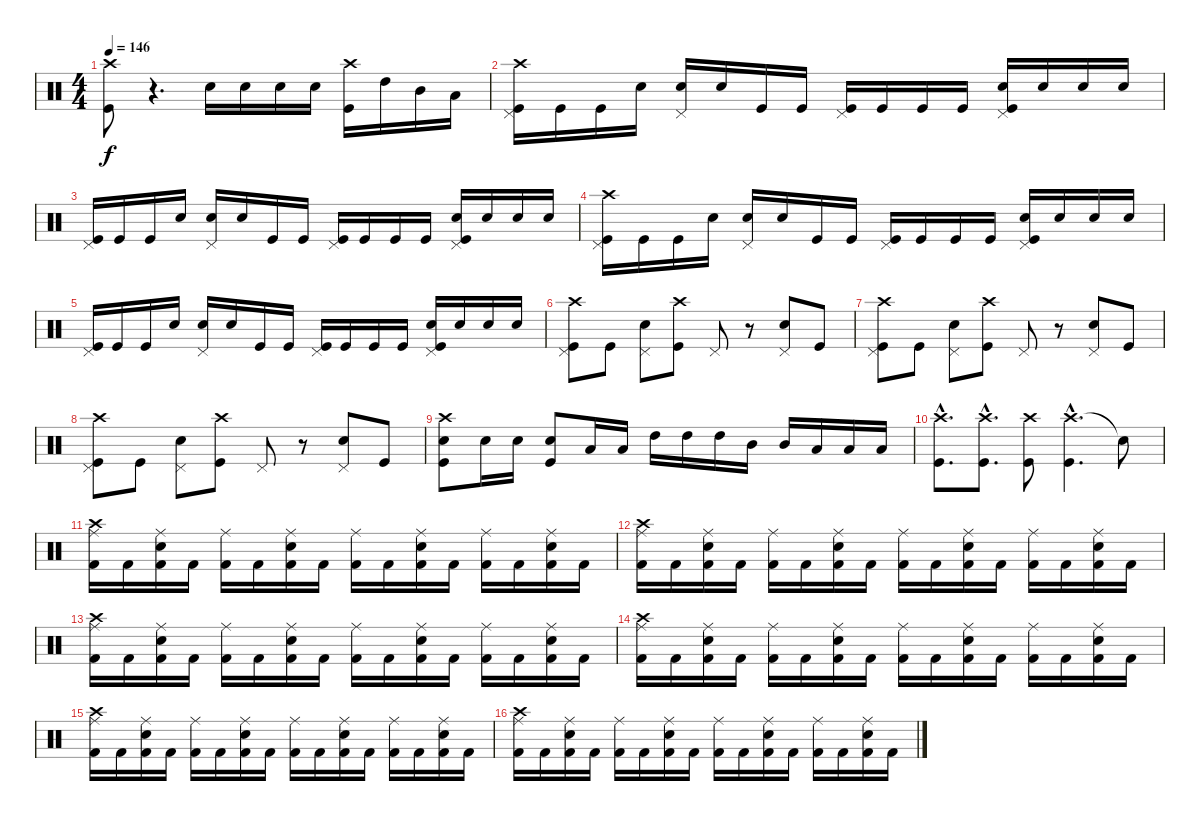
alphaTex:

\track "" {instrument percussion}
\staff {score}
\articulation defaults
\ts (4 4)
\tempo 146
\clef neutral
\ks c
("Crash high (hit)" "Kick (hit)").8{dy f} r.4{d} "Snare (hit) 2".16 "Snare (hit) 2".16 "Snare (hit) 2".16 "Snare (hit) 2".16 ("Crash high (hit)" "Kick (hit)").16 "High Tom (hit)".16 "Mid Tom (hit)".16 "Low Tom (hit)".16 |
("Crash high (hit)" "Pedal Hi-Hat (hit)" "Kick (hit)").16 "Kick (hit)".16 "Kick (hit)".16 "Snare (hit)"{x}.16 ("Snare (hit) 2" "Pedal Hi-Hat (hit)").16 "Snare (hit)"{x}.16 "Kick (hit)".16 "Kick (hit)".16 ("Pedal Hi-Hat (hit)" "Kick (hit)").16 "Kick (hit)".16 "Kick (hit)".16 "Kick (hit)".16 ("Pedal Hi-Hat (hit)" "Snare (hit) 2" "Kick (hit)").16 "Snare (hit)"{x}.16 "Snare (hit)"{x}.16 "Snare (hit)"{x}.16 |
("Pedal Hi-Hat (hit)" "Kick (hit)").16 "Kick (hit)".16 "Kick (hit)".16 "Snare (hit)"{x}.16 ("Snare (hit) 2" "Pedal Hi-Hat (hit)").16 "Snare (hit)"{x}.16 "Kick (hit)".16 "Kick (hit)".16 ("Pedal Hi-Hat (hit)" "Kick (hit)").16 "Kick (hit)".16 "Kick (hit)".16 "Kick (hit)".16 ("Pedal Hi-Hat (hit)" "Snare (hit) 2" "Kick (hit)").16 "Snare (hit)"{x}.16 "Snare (hit)"{x}.16 "Snare (hit)"{x}.16 |
("Crash high (hit)" "Pedal Hi-Hat (hit)" "Kick (hit)").16 "Kick (hit)".16 "Kick (hit)".16 "Snare (hit)"{x}.16 ("Snare (hit) 2" "Pedal Hi-Hat (hit)").16 "Snare (hit)"{x}.16 "Kick (hit)".16 "Kick (hit)".16 ("Pedal Hi-Hat (hit)" "Kick (hit)").16 "Kick (hit)".16 "Kick (hit)".16 "Kick (hit)".16 ("Pedal Hi-Hat (hit)" "Snare (hit) 2" "Kick (hit)").16 "Snare (hit)"{x}.16 "Snare (hit)"{x}.16 "Snare (hit)"{x}.16 |
("Pedal Hi-Hat (hit)" "Kick (hit)").16 "Kick (hit)".16 "Kick (hit)".16 "Snare (hit)"{x}.16 ("Snare (hit) 2" "Pedal Hi-Hat (hit)").16 "Snare (hit)"{x}.16 "Kick (hit)".16 "Kick (hit)".16 ("Pedal Hi-Hat (hit)" "Kick (hit)").16 "Kick (hit)".16 "Kick (hit)".16 "Kick (hit)".16 ("Pedal Hi-Hat (hit)" "Snare (hit) 2" "Kick (hit)").16 "Snare (hit)"{x}.16 "Snare (hit)"{x}.16 "Snare (hit)"{x}.16 |
("Crash high (hit)" "Pedal Hi-Hat (hit)" "Kick (hit)").8 "Kick (hit)".8 ("Pedal Hi-Hat (hit)" "Snare (hit) 2").8 ("Crash high (hit)" "Kick (hit)").8 "Pedal Hi-Hat (hit)".8 r.8 ("Pedal Hi-Hat (hit)" "Snare (hit) 2").8 "Kick (hit)".8 |
("Crash high (hit)" "Pedal Hi-Hat (hit)" "Kick (hit)").8 "Kick (hit)".8 ("Pedal Hi-Hat (hit)" "Snare (hit) 2").8 ("Crash high (hit)" "Kick (hit)").8 "Pedal Hi-Hat (hit)".8 r.8 ("Pedal Hi-Hat (hit)" "Snare (hit) 2").8 "Kick (hit)".8 |
("Crash high (hit)" "Pedal Hi-Hat (hit)" "Kick (hit)").8 "Kick (hit)".8 ("Pedal Hi-Hat (hit)" "Snare (hit) 2").8 ("Crash high (hit)" "Kick (hit)").8 "Pedal Hi-Hat (hit)".8 r.8 ("Pedal Hi-Hat (hit)" "Snare (hit) 2").8 "Kick (hit)".8 |
("Crash high (hit)" "Kick (hit)" "Snare (hit) 2").8 "Snare (hit) 2".16 "Snare (hit) 2".16 ("Snare (hit) 2" "Kick (hit)").8 "Low Tom (hit)".16 "Low Tom (hit)".16 "High Tom (hit)".16 "High Tom (hit)".16 "High Tom (hit)".16 "Mid Tom (hit)".16 "Mid Tom (hit)".16 "Low Tom (hit)".16 "Low Tom (hit)".16 "Low Tom (hit)".16 |
("Crash high (hit)"{hac} "Kick (hit)"{hac}).8{d} ("Crash high (hit)"{hac} "Kick (hit)"{hac}).8{d} ("Crash high (hit)" "Kick (hit)").8 ("Crash high (hit)"{hac} "Kick (hit)"{hac}).4{d} "Snare (hit)"{t}.8 |
("Crash high (hit)" "Ride (middle)" "Kick (hit) 2").16 "Kick (hit) 2".16 ("Electric Snare (hit)" "Ride (middle)" "Kick (hit) 2").16 "Kick (hit) 2".16 ("Ride (middle)" "Kick (hit) 2").16 "Kick (hit) 2".16 ("Electric Snare (hit)" "Ride (middle)" "Kick (hit) 2").16 "Kick (hit) 2".16 ("Ride (middle)" "Kick (hit) 2").16 "Kick (hit) 2".16 ("Electric Snare (hit)" "Ride (middle)" "Kick (hit) 2").16 "Kick (hit) 2".16 ("Ride (middle)" "Kick (hit) 2").16 "Kick (hit) 2".16 ("Electric Snare (hit)" "Ride (middle)" "Kick (hit) 2").16 "Kick (hit) 2".16 |
("Crash high (hit)" "Ride (middle)" "Kick (hit) 2").16 "Kick (hit) 2".16 ("Electric Snare (hit)" "Ride (middle)" "Kick (hit) 2").16 "Kick (hit) 2".16 ("Ride (middle)" "Kick (hit) 2").16 "Kick (hit) 2".16 ("Electric Snare (hit)" "Ride (middle)" "Kick (hit) 2").16 "Kick (hit) 2".16 ("Ride (middle)" "Kick (hit) 2").16 "Kick (hit) 2".16 ("Electric Snare (hit)" "Ride (middle)" "Kick (hit) 2").16 "Kick (hit) 2".16 ("Ride (middle)" "Kick (hit) 2").16 "Kick (hit) 2".16 ("Electric Snare (hit)" "Ride (middle)" "Kick (hit) 2").16 "Kick (hit) 2".16 |
("Crash high (hit)" "Ride (middle)" "Kick (hit) 2").16 "Kick (hit) 2".16 ("Electric Snare (hit)" "Ride (middle)" "Kick (hit) 2").16 "Kick (hit) 2".16 ("Ride (middle)" "Kick (hit) 2").16 "Kick (hit) 2".16 ("Electric Snare (hit)" "Ride (middle)" "Kick (hit) 2").16 "Kick (hit) 2".16 ("Ride (middle)" "Kick (hit) 2").16 "Kick (hit) 2".16 ("Electric Snare (hit)" "Ride (middle)" "Kick (hit) 2").16 "Kick (hit) 2".16 ("Ride (middle)" "Kick (hit) 2").16 "Kick (hit) 2".16 ("Electric Snare (hit)" "Ride (middle)" "Kick (hit) 2").16 "Kick (hit) 2".16 |
("Crash high (hit)" "Ride (middle)" "Kick (hit) 2").16 "Kick (hit) 2".16 ("Electric Snare (hit)" "Ride (middle)" "Kick (hit) 2").16 "Kick (hit) 2".16 ("Ride (middle)" "Kick (hit) 2").16 "Kick (hit) 2".16 ("Electric Snare (hit)" "Ride (middle)" "Kick (hit) 2").16 "Kick (hit) 2".16 ("Ride (middle)" "Kick (hit) 2").16 "Kick (hit) 2".16 ("Electric Snare (hit)" "Ride (middle)" "Kick (hit) 2").16 "Kick (hit) 2".16 ("Ride (middle)" "Kick (hit) 2").16 "Kick (hit) 2".16 ("Electric Snare (hit)" "Ride (middle)" "Kick (hit) 2").16 "Kick (hit) 2".16 |
("Crash high (hit)" "Ride (middle)" "Kick (hit) 2").16 "Kick (hit) 2".16 ("Electric Snare (hit)" "Ride (middle)" "Kick (hit) 2").16 "Kick (hit) 2".16 ("Ride (middle)" "Kick (hit) 2").16 "Kick (hit) 2".16 ("Electric Snare (hit)" "Ride (middle)" "Kick (hit) 2").16 "Kick (hit) 2".16 ("Ride (middle)" "Kick (hit) 2").16 "Kick (hit) 2".16 ("Electric Snare (hit)" "Ride (middle)" "Kick (hit) 2").16 "Kick (hit) 2".16 ("Ride (middle)" "Kick (hit) 2").16 "Kick (hit) 2".16 ("Electric Snare (hit)" "Ride (middle)" "Kick (hit) 2").16 "Kick (hit) 2".16 |
("Crash high (hit)" "Ride (middle)" "Kick (hit) 2").16 "Kick (hit) 2".16 ("Electric Snare (hit)" "Ride (middle)" "Kick (hit) 2").16 "Kick (hit) 2".16 ("Ride (middle)" "Kick (hit) 2").16 "Kick (hit) 2".16 ("Electric Snare (hit)" "Ride (middle)" "Kick (hit) 2").16 "Kick (hit) 2".16 ("Ride (middle)" "Kick (hit) 2").16 "Kick (hit) 2".16 ("Electric Snare (hit)" "Ride (middle)" "Kick (hit) 2").16 "Kick (hit) 2".16 ("Ride (middle)" "Kick (hit) 2").16 "Kick (hit) 2".16 ("Electric Snare (hit)" "Ride (middle)" "Kick (hit) 2").16 "Kick (hit) 2".16
